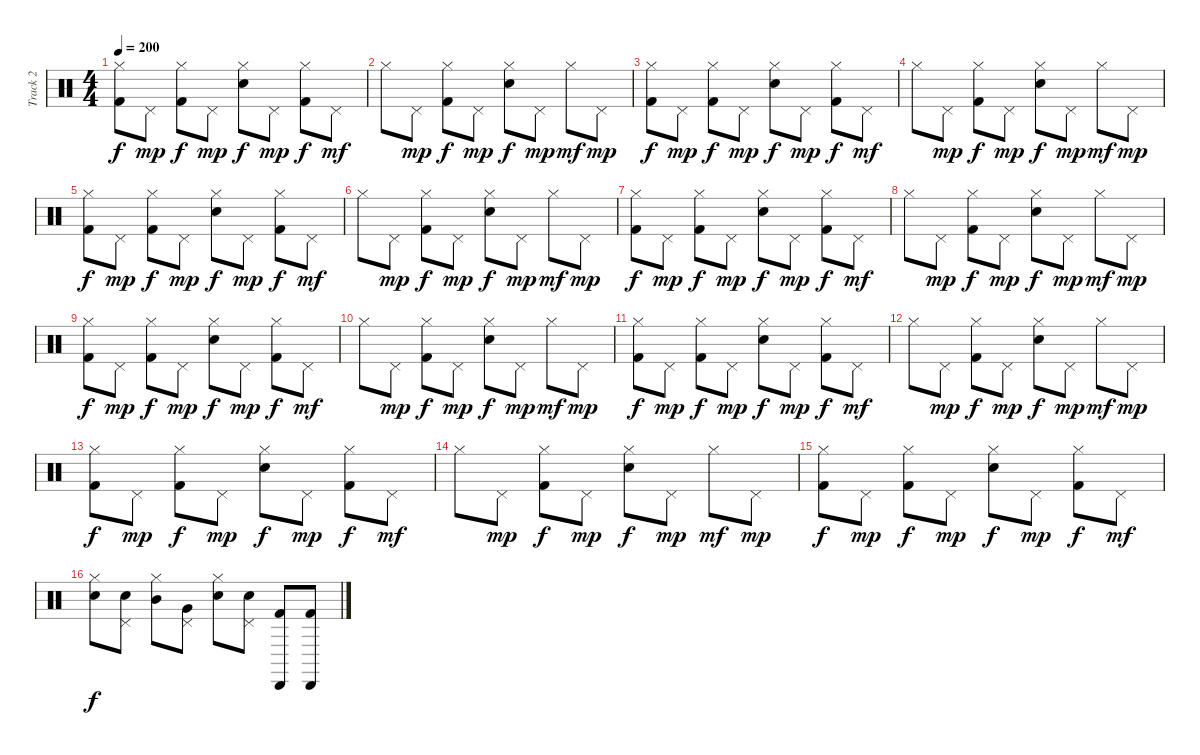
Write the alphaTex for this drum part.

\track ("Track 2" "Track 2") {instrument percussion}
\staff {score}
\articulation defaults
\ts (4 4)
\tempo 200
\clef neutral
\ks c
("Hi-Hat (closed)" "Kick (hit) 2").8{dy f} "Pedal Hi-Hat (hit)".8{dy mp} ("Hi-Hat (closed)" "Kick (hit) 2").8{dy f} "Pedal Hi-Hat (hit)".8{dy mp} ("Hi-Hat (closed)" "Snare (hit) 2").8{dy f} "Pedal Hi-Hat (hit)".8{dy mp} ("Hi-Hat (closed)" "Kick (hit) 2").8{dy f} "Pedal Hi-Hat (hit)".8{dy mf} |
"Hi-Hat (closed)".8 "Pedal Hi-Hat (hit)".8{dy mp} ("Hi-Hat (closed)" "Kick (hit) 2").8{dy f} "Pedal Hi-Hat (hit)".8{dy mp} ("Hi-Hat (closed)" "Snare (hit) 2").8{dy f} "Pedal Hi-Hat (hit)".8{dy mp} "Hi-Hat (closed)".8{dy mf} "Pedal Hi-Hat (hit)".8{dy mp} |
("Hi-Hat (closed)" "Kick (hit) 2").8{dy f} "Pedal Hi-Hat (hit)".8{dy mp} ("Hi-Hat (closed)" "Kick (hit) 2").8{dy f} "Pedal Hi-Hat (hit)".8{dy mp} ("Hi-Hat (closed)" "Snare (hit) 2").8{dy f} "Pedal Hi-Hat (hit)".8{dy mp} ("Hi-Hat (closed)" "Kick (hit) 2").8{dy f} "Pedal Hi-Hat (hit)".8{dy mf} |
"Hi-Hat (closed)".8 "Pedal Hi-Hat (hit)".8{dy mp} ("Hi-Hat (closed)" "Kick (hit) 2").8{dy f} "Pedal Hi-Hat (hit)".8{dy mp} ("Hi-Hat (closed)" "Snare (hit) 2").8{dy f} "Pedal Hi-Hat (hit)".8{dy mp} "Hi-Hat (closed)".8{dy mf} "Pedal Hi-Hat (hit)".8{dy mp} |
("Hi-Hat (closed)" "Kick (hit) 2").8{dy f} "Pedal Hi-Hat (hit)".8{dy mp} ("Hi-Hat (closed)" "Kick (hit) 2").8{dy f} "Pedal Hi-Hat (hit)".8{dy mp} ("Hi-Hat (closed)" "Snare (hit) 2").8{dy f} "Pedal Hi-Hat (hit)".8{dy mp} ("Hi-Hat (closed)" "Kick (hit) 2").8{dy f} "Pedal Hi-Hat (hit)".8{dy mf} |
"Hi-Hat (closed)".8 "Pedal Hi-Hat (hit)".8{dy mp} ("Hi-Hat (closed)" "Kick (hit) 2").8{dy f} "Pedal Hi-Hat (hit)".8{dy mp} ("Hi-Hat (closed)" "Snare (hit) 2").8{dy f} "Pedal Hi-Hat (hit)".8{dy mp} "Hi-Hat (closed)".8{dy mf} "Pedal Hi-Hat (hit)".8{dy mp} |
("Hi-Hat (closed)" "Kick (hit) 2").8{dy f} "Pedal Hi-Hat (hit)".8{dy mp} ("Hi-Hat (closed)" "Kick (hit) 2").8{dy f} "Pedal Hi-Hat (hit)".8{dy mp} ("Hi-Hat (closed)" "Snare (hit) 2").8{dy f} "Pedal Hi-Hat (hit)".8{dy mp} ("Hi-Hat (closed)" "Kick (hit) 2").8{dy f} "Pedal Hi-Hat (hit)".8{dy mf} |
"Hi-Hat (closed)".8 "Pedal Hi-Hat (hit)".8{dy mp} ("Hi-Hat (closed)" "Kick (hit) 2").8{dy f} "Pedal Hi-Hat (hit)".8{dy mp} ("Hi-Hat (closed)" "Snare (hit) 2").8{dy f} "Pedal Hi-Hat (hit)".8{dy mp} "Hi-Hat (closed)".8{dy mf} "Pedal Hi-Hat (hit)".8{dy mp} |
("Hi-Hat (closed)" "Kick (hit) 2").8{dy f} "Pedal Hi-Hat (hit)".8{dy mp} ("Hi-Hat (closed)" "Kick (hit) 2").8{dy f} "Pedal Hi-Hat (hit)".8{dy mp} ("Hi-Hat (closed)" "Snare (hit) 2").8{dy f} "Pedal Hi-Hat (hit)".8{dy mp} ("Hi-Hat (closed)" "Kick (hit) 2").8{dy f} "Pedal Hi-Hat (hit)".8{dy mf} |
"Hi-Hat (closed)".8 "Pedal Hi-Hat (hit)".8{dy mp} ("Hi-Hat (closed)" "Kick (hit) 2").8{dy f} "Pedal Hi-Hat (hit)".8{dy mp} ("Hi-Hat (closed)" "Snare (hit) 2").8{dy f} "Pedal Hi-Hat (hit)".8{dy mp} "Hi-Hat (closed)".8{dy mf} "Pedal Hi-Hat (hit)".8{dy mp} |
("Hi-Hat (closed)" "Kick (hit) 2").8{dy f} "Pedal Hi-Hat (hit)".8{dy mp} ("Hi-Hat (closed)" "Kick (hit) 2").8{dy f} "Pedal Hi-Hat (hit)".8{dy mp} ("Hi-Hat (closed)" "Snare (hit) 2").8{dy f} "Pedal Hi-Hat (hit)".8{dy mp} ("Hi-Hat (closed)" "Kick (hit) 2").8{dy f} "Pedal Hi-Hat (hit)".8{dy mf} |
"Hi-Hat (closed)".8 "Pedal Hi-Hat (hit)".8{dy mp} ("Hi-Hat (closed)" "Kick (hit) 2").8{dy f} "Pedal Hi-Hat (hit)".8{dy mp} ("Hi-Hat (closed)" "Snare (hit) 2").8{dy f} "Pedal Hi-Hat (hit)".8{dy mp} "Hi-Hat (closed)".8{dy mf} "Pedal Hi-Hat (hit)".8{dy mp} |
("Hi-Hat (closed)" "Kick (hit) 2").8{dy f} "Pedal Hi-Hat (hit)".8{dy mp} ("Hi-Hat (closed)" "Kick (hit) 2").8{dy f} "Pedal Hi-Hat (hit)".8{dy mp} ("Hi-Hat (closed)" "Snare (hit) 2").8{dy f} "Pedal Hi-Hat (hit)".8{dy mp} ("Hi-Hat (closed)" "Kick (hit) 2").8{dy f} "Pedal Hi-Hat (hit)".8{dy mf} |
"Hi-Hat (closed)".8 "Pedal Hi-Hat (hit)".8{dy mp} ("Hi-Hat (closed)" "Kick (hit) 2").8{dy f} "Pedal Hi-Hat (hit)".8{dy mp} ("Hi-Hat (closed)" "Snare (hit) 2").8{dy f} "Pedal Hi-Hat (hit)".8{dy mp} "Hi-Hat (closed)".8{dy mf} "Pedal Hi-Hat (hit)".8{dy mp} |
("Hi-Hat (closed)" "Kick (hit) 2").8{dy f} "Pedal Hi-Hat (hit)".8{dy mp} ("Hi-Hat (closed)" "Kick (hit) 2").8{dy f} "Pedal Hi-Hat (hit)".8{dy mp} ("Hi-Hat (closed)" "Snare (hit) 2").8{dy f} "Pedal Hi-Hat (hit)".8{dy mp} ("Hi-Hat (closed)" "Kick (hit) 2").8{dy f} "Pedal Hi-Hat (hit)".8{dy mf} |
("Hi-Hat (closed)" "Snare (hit) 2").8{dy f} ("Pedal Hi-Hat (hit)" "Snare (hit) 2").8 ("Hi-Hat (closed)" "Mid Tom (hit)").8 ("Pedal Hi-Hat (hit)" "Very Low Tom (hit)").8 ("Hi-Hat (closed)" "Snare (hit) 2").8 ("Pedal Hi-Hat (hit)" "Snare (hit) 2").8 ("Cabasa (hit)" "Kick (hit) 2").8 ("Cabasa (hit)" "Kick (hit) 2").8
